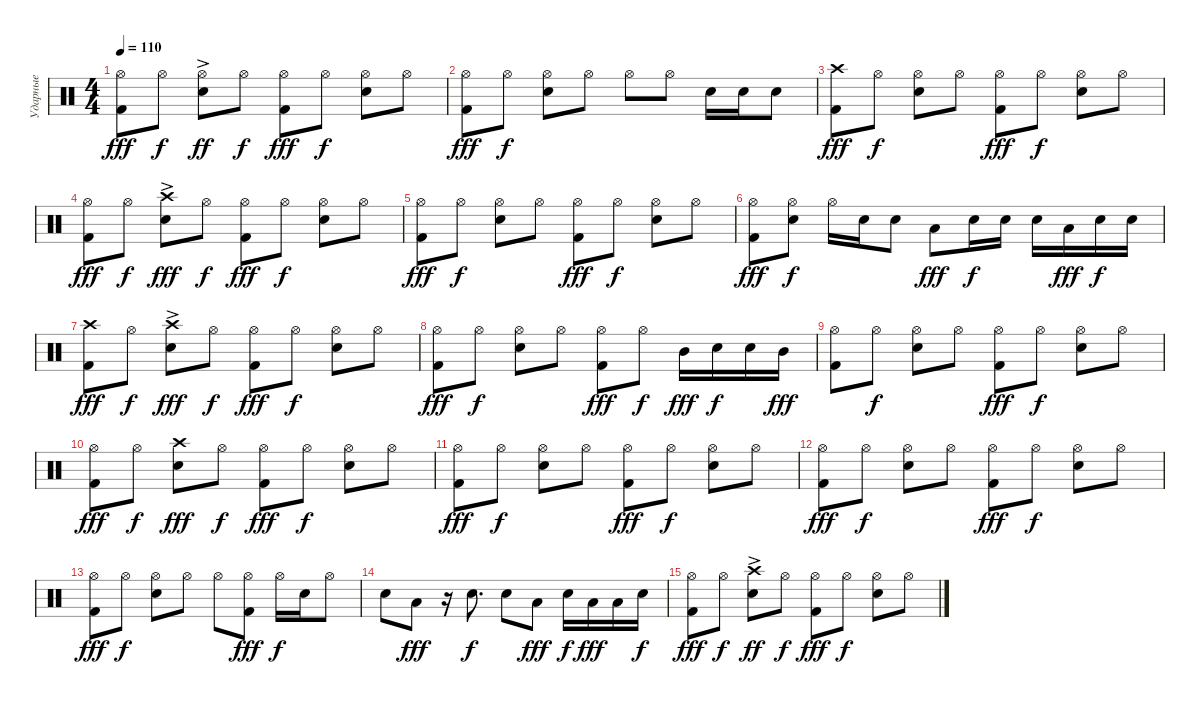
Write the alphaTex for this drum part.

\track ("Ударные" "Ударные") {instrument percussion}
\staff
\articulation defaults
\ts (4 4)
\tempo 110
\clef neutral
\ks c
("Kick (hit) 2" "Hi-Hat (open)").8{dy fff} "Hi-Hat (open)".8{dy f} ("Snare (hit) 2" "Hi-Hat (open)"{ac}).8{dy ff} "Hi-Hat (open)".8{dy f} ("Kick (hit) 2" "Hi-Hat (open)").8{dy fff} "Hi-Hat (open)".8{dy f} ("Snare (hit) 2" "Hi-Hat (open)").8 "Hi-Hat (open)".8 |
("Kick (hit) 2" "Hi-Hat (open)").8{dy fff} "Hi-Hat (open)".8{dy f} ("Snare (hit) 2" "Hi-Hat (open)").8 "Hi-Hat (open)".8 "Hi-Hat (open)".8 "Hi-Hat (open)".8 "Snare (hit) 2".16 "Snare (hit) 2".16 "Snare (hit) 2".8 |
("Kick (hit) 2" "Crash high (hit)").8{dy fff} "Hi-Hat (open)".8{dy f} ("Snare (hit) 2" "Hi-Hat (open)").8 "Hi-Hat (open)".8 ("Kick (hit) 2" "Hi-Hat (open)").8{dy fff} "Hi-Hat (open)".8{dy f} ("Snare (hit) 2" "Hi-Hat (open)").8 "Hi-Hat (open)".8 |
("Kick (hit) 2" "Hi-Hat (open)").8{dy fff} "Hi-Hat (open)".8{dy f} ("Snare (hit) 2" "Crash high (hit)"{ac}).8{dy fff} "Hi-Hat (open)".8{dy f} ("Kick (hit) 2" "Hi-Hat (open)").8{dy fff} "Hi-Hat (open)".8{dy f} ("Snare (hit) 2" "Hi-Hat (open)").8 "Hi-Hat (open)".8 |
("Kick (hit) 2" "Hi-Hat (open)").8{dy fff} "Hi-Hat (open)".8{dy f} ("Snare (hit) 2" "Hi-Hat (open)").8 "Hi-Hat (open)".8 ("Kick (hit) 2" "Hi-Hat (open)").8{dy fff} "Hi-Hat (open)".8{dy f} ("Snare (hit) 2" "Hi-Hat (open)").8 "Hi-Hat (open)".8 |
("Kick (hit) 2" "Hi-Hat (open)").8{dy fff} ("Snare (hit) 2" "Hi-Hat (open)").8{dy f} "Hi-Hat (open)".16 "Snare (hit) 2".16 "Snare (hit) 2".8 "Low Tom (hit)".8{dy fff} "Snare (hit) 2".16{dy f} "Snare (hit) 2".16 "Snare (hit) 2".16 "Low Tom (hit)".16{dy fff} "Snare (hit) 2".16{dy f} "Snare (hit) 2".16 |
("Kick (hit) 2" "Crash high (hit)").8{dy fff} "Hi-Hat (open)".8{dy f} ("Snare (hit) 2" "Crash high (hit)"{ac}).8{dy fff} "Hi-Hat (open)".8{dy f} ("Kick (hit) 2" "Hi-Hat (open)").8{dy fff} "Hi-Hat (open)".8{dy f} ("Snare (hit) 2" "Hi-Hat (open)").8 "Hi-Hat (open)".8 |
("Kick (hit) 2" "Hi-Hat (open)").8{dy fff} "Hi-Hat (open)".8{dy f} ("Snare (hit) 2" "Hi-Hat (open)").8 "Hi-Hat (open)".8 ("Kick (hit) 2" "Hi-Hat (open)").8{dy fff} "Hi-Hat (open)".8{dy f} "Mid Tom (hit)".16{dy fff} "Snare (hit) 2".16{dy f} "Snare (hit) 2".16 "Mid Tom (hit)".16{dy fff} |
("Kick (hit) 2" "Hi-Hat (open)").8 "Hi-Hat (open)".8{dy f} ("Snare (hit) 2" "Hi-Hat (open)").8 "Hi-Hat (open)".8 ("Kick (hit) 2" "Hi-Hat (open)").8{dy fff} "Hi-Hat (open)".8{dy f} ("Snare (hit) 2" "Hi-Hat (open)").8 "Hi-Hat (open)".8 |
("Kick (hit) 2" "Hi-Hat (open)").8{dy fff} "Hi-Hat (open)".8{dy f} ("Snare (hit) 2" "Crash high (hit)").8{dy fff} "Hi-Hat (open)".8{dy f} ("Kick (hit) 2" "Hi-Hat (open)").8{dy fff} "Hi-Hat (open)".8{dy f} ("Snare (hit) 2" "Hi-Hat (open)").8 "Hi-Hat (open)".8 |
("Kick (hit) 2" "Hi-Hat (open)").8{dy fff} "Hi-Hat (open)".8{dy f} ("Snare (hit) 2" "Hi-Hat (open)").8 "Hi-Hat (open)".8 ("Kick (hit) 2" "Hi-Hat (open)").8{dy fff} "Hi-Hat (open)".8{dy f} ("Snare (hit) 2" "Hi-Hat (open)").8 "Hi-Hat (open)".8 |
("Kick (hit) 2" "Hi-Hat (open)").8{dy fff} "Hi-Hat (open)".8{dy f} ("Snare (hit) 2" "Hi-Hat (open)").8 "Hi-Hat (open)".8 ("Kick (hit) 2" "Hi-Hat (open)").8{dy fff} "Hi-Hat (open)".8{dy f} ("Snare (hit) 2" "Hi-Hat (open)").8 "Hi-Hat (open)".8 |
("Kick (hit) 2" "Hi-Hat (open)").8{dy fff} "Hi-Hat (open)".8{dy f} ("Snare (hit) 2" "Hi-Hat (open)").8 "Hi-Hat (open)".8 "Hi-Hat (open)".8 ("Kick (hit) 2" "Hi-Hat (open)").8{dy fff} "Hi-Hat (open)".16{dy f} "Snare (hit) 2".16 "Hi-Hat (open)".8 |
"Snare (hit) 2".8 "Low Tom (hit)".8{dy fff} r.16 "Snare (hit) 2".8{d dy f} "Snare (hit) 2".8 "Low Tom (hit)".8{dy fff} "Snare (hit) 2".16{dy f} "Low Tom (hit)".16{dy fff} "Low Tom (hit)".16 "Snare (hit) 2".16{dy f} |
("Kick (hit) 2" "Hi-Hat (open)").8{dy fff} "Hi-Hat (open)".8{dy f} ("Snare (hit) 2" "Crash high (hit)"{ac}).8{dy ff} "Hi-Hat (open)".8{dy f} ("Kick (hit) 2" "Hi-Hat (open)").8{dy fff} "Hi-Hat (open)".8{dy f} ("Snare (hit) 2" "Hi-Hat (open)").8 "Hi-Hat (open)".8
